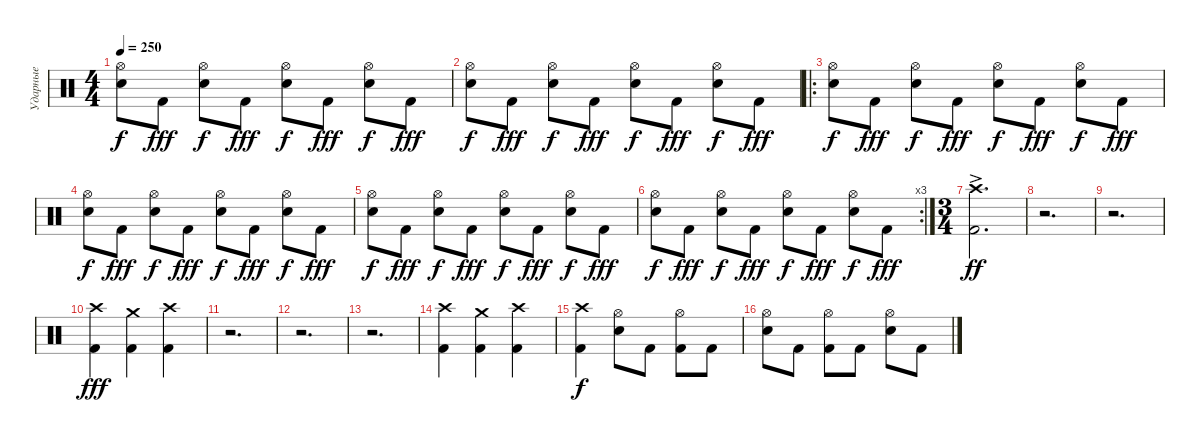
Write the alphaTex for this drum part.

\track ("Ударные" "Ударные") {instrument percussion}
\staff {score}
\articulation defaults
\ts (4 4)
\tempo 250
\clef neutral
\ks c
("Snare (hit) 2" "Hi-Hat (open)").8{dy f} "Kick (hit) 2".8{dy fff} ("Snare (hit) 2" "Hi-Hat (open)").8{dy f} "Kick (hit) 2".8{dy fff} ("Snare (hit) 2" "Hi-Hat (open)").8{dy f} "Kick (hit) 2".8{dy fff} ("Snare (hit) 2" "Hi-Hat (open)").8{dy f} "Kick (hit) 2".8{dy fff} |
("Snare (hit) 2" "Hi-Hat (open)").8{dy f} "Kick (hit) 2".8{dy fff} ("Snare (hit) 2" "Hi-Hat (open)").8{dy f} "Kick (hit) 2".8{dy fff} ("Snare (hit) 2" "Hi-Hat (open)").8{dy f} "Kick (hit) 2".8{dy fff} ("Snare (hit) 2" "Hi-Hat (open)").8{dy f} "Kick (hit) 2".8{dy fff} |
\ro
("Snare (hit) 2" "Hi-Hat (open)").8{dy f} "Kick (hit) 2".8{dy fff} ("Snare (hit) 2" "Hi-Hat (open)").8{dy f} "Kick (hit) 2".8{dy fff} ("Snare (hit) 2" "Hi-Hat (open)").8{dy f} "Kick (hit) 2".8{dy fff} ("Snare (hit) 2" "Hi-Hat (open)").8{dy f} "Kick (hit) 2".8{dy fff} |
("Snare (hit) 2" "Hi-Hat (open)").8{dy f} "Kick (hit) 2".8{dy fff} ("Snare (hit) 2" "Hi-Hat (open)").8{dy f} "Kick (hit) 2".8{dy fff} ("Snare (hit) 2" "Hi-Hat (open)").8{dy f} "Kick (hit) 2".8{dy fff} ("Snare (hit) 2" "Hi-Hat (open)").8{dy f} "Kick (hit) 2".8{dy fff} |
("Snare (hit) 2" "Hi-Hat (open)").8{dy f} "Kick (hit) 2".8{dy fff} ("Snare (hit) 2" "Hi-Hat (open)").8{dy f} "Kick (hit) 2".8{dy fff} ("Snare (hit) 2" "Hi-Hat (open)").8{dy f} "Kick (hit) 2".8{dy fff} ("Snare (hit) 2" "Hi-Hat (open)").8{dy f} "Kick (hit) 2".8{dy fff} |
\rc 3
("Snare (hit) 2" "Hi-Hat (open)").8{dy f} "Kick (hit) 2".8{dy fff} ("Snare (hit) 2" "Hi-Hat (open)").8{dy f} "Kick (hit) 2".8{dy fff} ("Snare (hit) 2" "Hi-Hat (open)").8{dy f} "Kick (hit) 2".8{dy fff} ("Snare (hit) 2" "Hi-Hat (open)").8{dy f} "Kick (hit) 2".8{dy fff} |
\ts (3 4)
("Kick (hit) 2" "Crash high (hit)"{ac}).2{d dy ff} |
r.2{d} |
r.2{d} |
("Kick (hit) 2" "Crash high (hit)").4{dy fff} ("Kick (hit) 2" "Crash medium (hit)").4 ("Kick (hit) 2" "Crash high (hit)").4 |
r.2{d} |
r.2{d} |
r.2{d} |
("Kick (hit) 2" "Crash high (hit)").4 ("Kick (hit) 2" "Crash medium (hit)").4 ("Kick (hit) 2" "Crash high (hit)").4 |
("Kick (hit) 2" "Crash high (hit)").4{dy f} ("Snare (hit) 2" "Hi-Hat (open)").8 "Kick (hit) 2".8 ("Kick (hit) 2" "Hi-Hat (open)").8 "Kick (hit) 2".8 |
("Snare (hit) 2" "Hi-Hat (open)").8 "Kick (hit) 2".8 ("Kick (hit) 2" "Hi-Hat (open)").8 "Kick (hit) 2".8 ("Snare (hit) 2" "Hi-Hat (open)").8 "Kick (hit) 2".8
